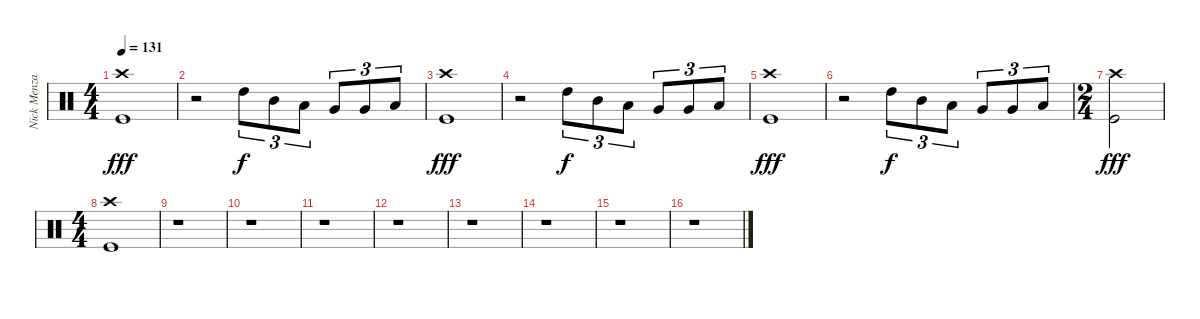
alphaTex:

\track ("Nick Menza" "Nick Menza") {instrument percussion}
\staff {score}
\articulation defaults
\ts (4 4)
\tempo 131
\clef neutral
\ks c
("Crash high (hit)" "Kick (hit)").1{dy fff} |
r.2 "High Tom (hit)".8{tu (3 2) dy f} "Mid Tom (hit)".8{tu (3 2)} "Low Tom (hit)".8{tu (3 2)} "Very Low Tom (hit)".8{tu (3 2)} "Very Low Tom (hit)".8{tu (3 2)} "Low Floor Tom (hit)".8{tu (3 2)} |
("Crash high (hit)" "Kick (hit)").1{dy fff} |
r.2 "High Tom (hit)".8{tu (3 2) dy f} "Mid Tom (hit)".8{tu (3 2)} "Low Tom (hit)".8{tu (3 2)} "Very Low Tom (hit)".8{tu (3 2)} "Very Low Tom (hit)".8{tu (3 2)} "Low Floor Tom (hit)".8{tu (3 2)} |
("Crash high (hit)" "Kick (hit)").1{dy fff} |
r.2 "High Tom (hit)".8{tu (3 2) dy f} "Mid Tom (hit)".8{tu (3 2)} "Low Tom (hit)".8{tu (3 2)} "Very Low Tom (hit)".8{tu (3 2)} "Very Low Tom (hit)".8{tu (3 2)} "Low Floor Tom (hit)".8{tu (3 2)} |
\ts (2 4)
("Crash high (hit)" "Kick (hit)").2{dy fff} |
\ts (4 4)
("Crash high (hit)" "Kick (hit)").1 |
r.1 |
r.1 |
r.1 |
r.1 |
r.1 |
r.1 |
r.1 |
r.1
